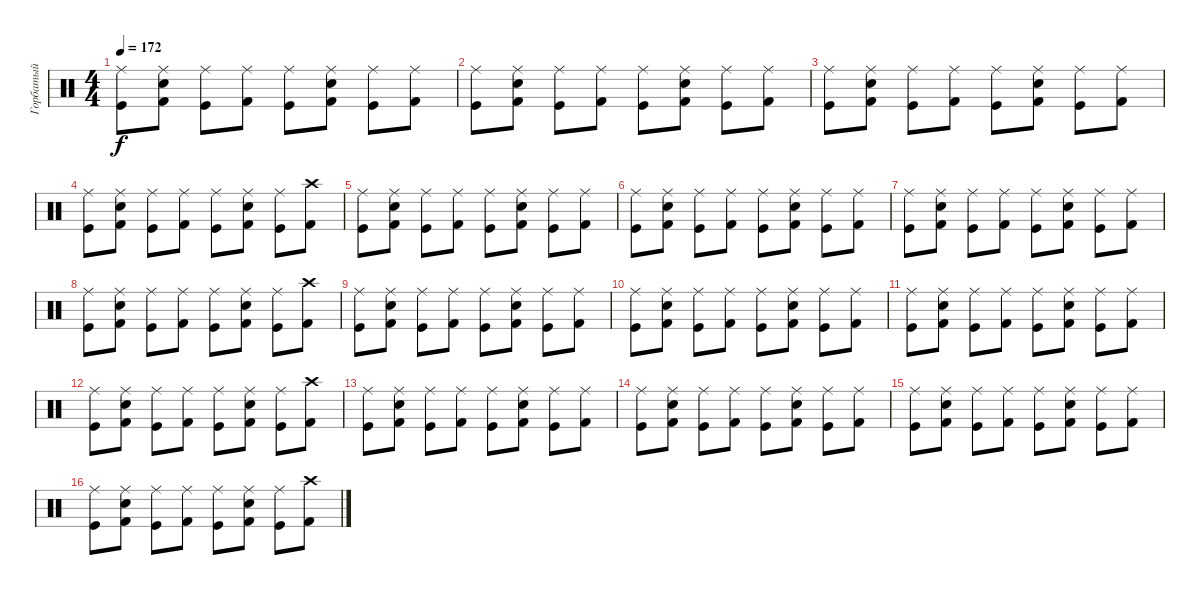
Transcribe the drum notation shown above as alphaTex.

\track ("Горбатый" "Горбатый") {instrument percussion}
\staff {score}
\articulation defaults
\ts (4 4)
\tempo 172
\clef neutral
\ks c
("Ride (middle)" "Kick (hit)").8{dy f} ("Electric Snare (hit)" "Ride (middle)" "Kick (hit) 2").8 ("Ride (middle)" "Kick (hit)").8 ("Ride (middle)" "Kick (hit) 2").8 ("Ride (middle)" "Kick (hit)").8 ("Electric Snare (hit)" "Ride (middle)" "Kick (hit) 2").8 ("Ride (middle)" "Kick (hit)").8 ("Ride (middle)" "Kick (hit) 2").8 |
("Ride (middle)" "Kick (hit)").8 ("Electric Snare (hit)" "Ride (middle)" "Kick (hit) 2").8 ("Ride (middle)" "Kick (hit)").8 ("Ride (middle)" "Kick (hit) 2").8 ("Ride (middle)" "Kick (hit)").8 ("Electric Snare (hit)" "Ride (middle)" "Kick (hit) 2").8 ("Ride (middle)" "Kick (hit)").8 ("Ride (middle)" "Kick (hit) 2").8 |
("Ride (middle)" "Kick (hit)").8 ("Electric Snare (hit)" "Ride (middle)" "Kick (hit) 2").8 ("Ride (middle)" "Kick (hit)").8 ("Ride (middle)" "Kick (hit) 2").8 ("Ride (middle)" "Kick (hit)").8 ("Electric Snare (hit)" "Ride (middle)" "Kick (hit) 2").8 ("Ride (middle)" "Kick (hit)").8 ("Ride (middle)" "Kick (hit) 2").8 |
("Ride (middle)" "Kick (hit)").8 ("Electric Snare (hit)" "Ride (middle)" "Kick (hit) 2").8 ("Ride (middle)" "Kick (hit)").8 ("Ride (middle)" "Kick (hit) 2").8 ("Ride (middle)" "Kick (hit)").8 ("Electric Snare (hit)" "Ride (middle)" "Kick (hit) 2").8 ("Ride (middle)" "Kick (hit)").8 ("Crash high (hit)" "Kick (hit) 2").8 |
("Ride (middle)" "Kick (hit)").8 ("Electric Snare (hit)" "Ride (middle)" "Kick (hit) 2").8 ("Ride (middle)" "Kick (hit)").8 ("Ride (middle)" "Kick (hit) 2").8 ("Ride (middle)" "Kick (hit)").8 ("Electric Snare (hit)" "Ride (middle)" "Kick (hit) 2").8 ("Ride (middle)" "Kick (hit)").8 ("Ride (middle)" "Kick (hit) 2").8 |
("Ride (middle)" "Kick (hit)").8 ("Electric Snare (hit)" "Ride (middle)" "Kick (hit) 2").8 ("Ride (middle)" "Kick (hit)").8 ("Ride (middle)" "Kick (hit) 2").8 ("Ride (middle)" "Kick (hit)").8 ("Electric Snare (hit)" "Ride (middle)" "Kick (hit) 2").8 ("Ride (middle)" "Kick (hit)").8 ("Ride (middle)" "Kick (hit) 2").8 |
("Ride (middle)" "Kick (hit)").8 ("Electric Snare (hit)" "Ride (middle)" "Kick (hit) 2").8 ("Ride (middle)" "Kick (hit)").8 ("Ride (middle)" "Kick (hit) 2").8 ("Ride (middle)" "Kick (hit)").8 ("Electric Snare (hit)" "Ride (middle)" "Kick (hit) 2").8 ("Ride (middle)" "Kick (hit)").8 ("Ride (middle)" "Kick (hit) 2").8 |
("Ride (middle)" "Kick (hit)").8 ("Electric Snare (hit)" "Ride (middle)" "Kick (hit) 2").8 ("Ride (middle)" "Kick (hit)").8 ("Ride (middle)" "Kick (hit) 2").8 ("Ride (middle)" "Kick (hit)").8 ("Electric Snare (hit)" "Ride (middle)" "Kick (hit) 2").8 ("Ride (middle)" "Kick (hit)").8 ("Crash high (hit)" "Kick (hit) 2").8 |
("Ride (middle)" "Kick (hit)").8 ("Electric Snare (hit)" "Ride (middle)" "Kick (hit) 2").8 ("Ride (middle)" "Kick (hit)").8 ("Ride (middle)" "Kick (hit) 2").8 ("Ride (middle)" "Kick (hit)").8 ("Electric Snare (hit)" "Ride (middle)" "Kick (hit) 2").8 ("Ride (middle)" "Kick (hit)").8 ("Ride (middle)" "Kick (hit) 2").8 |
("Ride (middle)" "Kick (hit)").8 ("Electric Snare (hit)" "Ride (middle)" "Kick (hit) 2").8 ("Ride (middle)" "Kick (hit)").8 ("Ride (middle)" "Kick (hit) 2").8 ("Ride (middle)" "Kick (hit)").8 ("Electric Snare (hit)" "Ride (middle)" "Kick (hit) 2").8 ("Ride (middle)" "Kick (hit)").8 ("Ride (middle)" "Kick (hit) 2").8 |
("Ride (middle)" "Kick (hit)").8 ("Electric Snare (hit)" "Ride (middle)" "Kick (hit) 2").8 ("Ride (middle)" "Kick (hit)").8 ("Ride (middle)" "Kick (hit) 2").8 ("Ride (middle)" "Kick (hit)").8 ("Electric Snare (hit)" "Ride (middle)" "Kick (hit) 2").8 ("Ride (middle)" "Kick (hit)").8 ("Ride (middle)" "Kick (hit) 2").8 |
("Ride (middle)" "Kick (hit)").8 ("Electric Snare (hit)" "Ride (middle)" "Kick (hit) 2").8 ("Ride (middle)" "Kick (hit)").8 ("Ride (middle)" "Kick (hit) 2").8 ("Ride (middle)" "Kick (hit)").8 ("Electric Snare (hit)" "Ride (middle)" "Kick (hit) 2").8 ("Ride (middle)" "Kick (hit)").8 ("Crash high (hit)" "Kick (hit) 2").8 |
("Ride (middle)" "Kick (hit)").8 ("Electric Snare (hit)" "Ride (middle)" "Kick (hit) 2").8 ("Ride (middle)" "Kick (hit)").8 ("Ride (middle)" "Kick (hit) 2").8 ("Ride (middle)" "Kick (hit)").8 ("Electric Snare (hit)" "Ride (middle)" "Kick (hit) 2").8 ("Ride (middle)" "Kick (hit)").8 ("Ride (middle)" "Kick (hit) 2").8 |
("Ride (middle)" "Kick (hit)").8 ("Electric Snare (hit)" "Ride (middle)" "Kick (hit) 2").8 ("Ride (middle)" "Kick (hit)").8 ("Ride (middle)" "Kick (hit) 2").8 ("Ride (middle)" "Kick (hit)").8 ("Electric Snare (hit)" "Ride (middle)" "Kick (hit) 2").8 ("Ride (middle)" "Kick (hit)").8 ("Ride (middle)" "Kick (hit) 2").8 |
("Ride (middle)" "Kick (hit)").8 ("Electric Snare (hit)" "Ride (middle)" "Kick (hit) 2").8 ("Ride (middle)" "Kick (hit)").8 ("Ride (middle)" "Kick (hit) 2").8 ("Ride (middle)" "Kick (hit)").8 ("Electric Snare (hit)" "Ride (middle)" "Kick (hit) 2").8 ("Ride (middle)" "Kick (hit)").8 ("Ride (middle)" "Kick (hit) 2").8 |
("Ride (middle)" "Kick (hit)").8 ("Electric Snare (hit)" "Ride (middle)" "Kick (hit) 2").8 ("Ride (middle)" "Kick (hit)").8 ("Ride (middle)" "Kick (hit) 2").8 ("Ride (middle)" "Kick (hit)").8 ("Electric Snare (hit)" "Ride (middle)" "Kick (hit) 2").8 ("Ride (middle)" "Kick (hit)").8 ("Crash high (hit)" "Kick (hit) 2").8
